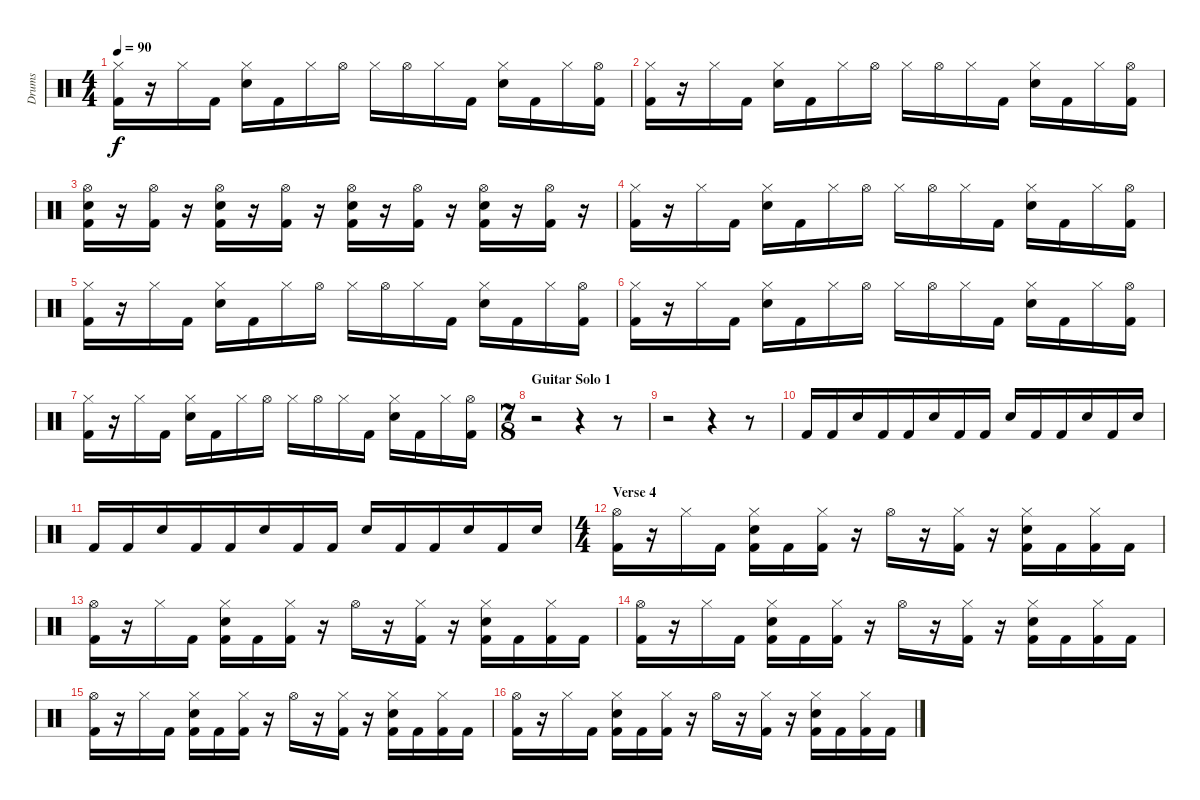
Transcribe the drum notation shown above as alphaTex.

\track ("Drums" "Drums") {instrument percussion}
\staff {score}
\articulation defaults
\ts (4 4)
\tempo 90
\clef neutral
\ks c
("Hi-Hat (closed)" "Kick (hit) 2").16{dy f} r.16 "Hi-Hat (closed)".16 "Kick (hit) 2".16 ("Hi-Hat (closed)" "Snare (hit) 2").16 "Kick (hit) 2".16 "Hi-Hat (closed)".16 "Hi-Hat (open)".16 "Hi-Hat (closed)".16 "Hi-Hat (open)".16 "Hi-Hat (closed)".16 "Kick (hit) 2".16 ("Hi-Hat (closed)" "Snare (hit) 2").16 "Kick (hit) 2".16 "Hi-Hat (closed)".16 ("Hi-Hat (open)" "Kick (hit) 2").16 |
("Hi-Hat (closed)" "Kick (hit) 2").16 r.16 "Hi-Hat (closed)".16 "Kick (hit) 2".16 ("Hi-Hat (closed)" "Snare (hit) 2").16 "Kick (hit) 2".16 "Hi-Hat (closed)".16 "Hi-Hat (open)".16 "Hi-Hat (closed)".16 "Hi-Hat (open)".16 "Hi-Hat (closed)".16 "Kick (hit) 2".16 ("Hi-Hat (closed)" "Snare (hit) 2").16 "Kick (hit) 2".16 "Hi-Hat (closed)".16 ("Hi-Hat (open)" "Kick (hit) 2").16 |
("Hi-Hat (open)" "Snare (hit) 2" "Kick (hit) 2").16 r.16 ("Hi-Hat (open)" "Kick (hit) 2").16 r.16 ("Hi-Hat (open)" "Snare (hit) 2" "Kick (hit) 2").16 r.16 ("Hi-Hat (open)" "Kick (hit) 2").16 r.16 ("Hi-Hat (open)" "Snare (hit) 2" "Kick (hit) 2").16 r.16 ("Hi-Hat (open)" "Kick (hit) 2").16 r.16 ("Hi-Hat (open)" "Snare (hit) 2" "Kick (hit) 2").16 r.16 ("Hi-Hat (open)" "Kick (hit) 2").16 r.16 |
("Hi-Hat (closed)" "Kick (hit) 2").16 r.16 "Hi-Hat (closed)".16 "Kick (hit) 2".16 ("Hi-Hat (closed)" "Snare (hit) 2").16 "Kick (hit) 2".16 "Hi-Hat (closed)".16 "Hi-Hat (open)".16 "Hi-Hat (closed)".16 "Hi-Hat (open)".16 "Hi-Hat (closed)".16 "Kick (hit) 2".16 ("Hi-Hat (closed)" "Snare (hit) 2").16 "Kick (hit) 2".16 "Hi-Hat (closed)".16 ("Hi-Hat (open)" "Kick (hit) 2").16 |
("Hi-Hat (closed)" "Kick (hit) 2").16 r.16 "Hi-Hat (closed)".16 "Kick (hit) 2".16 ("Hi-Hat (closed)" "Snare (hit) 2").16 "Kick (hit) 2".16 "Hi-Hat (closed)".16 "Hi-Hat (open)".16 "Hi-Hat (closed)".16 "Hi-Hat (open)".16 "Hi-Hat (closed)".16 "Kick (hit) 2".16 ("Hi-Hat (closed)" "Snare (hit) 2").16 "Kick (hit) 2".16 "Hi-Hat (closed)".16 ("Hi-Hat (open)" "Kick (hit) 2").16 |
("Hi-Hat (closed)" "Kick (hit) 2").16 r.16 "Hi-Hat (closed)".16 "Kick (hit) 2".16 ("Hi-Hat (closed)" "Snare (hit) 2").16 "Kick (hit) 2".16 "Hi-Hat (closed)".16 "Hi-Hat (open)".16 "Hi-Hat (closed)".16 "Hi-Hat (open)".16 "Hi-Hat (closed)".16 "Kick (hit) 2".16 ("Hi-Hat (closed)" "Snare (hit) 2").16 "Kick (hit) 2".16 "Hi-Hat (closed)".16 ("Hi-Hat (open)" "Kick (hit) 2").16 |
("Hi-Hat (closed)" "Kick (hit) 2").16 r.16 "Hi-Hat (closed)".16 "Kick (hit) 2".16 ("Hi-Hat (closed)" "Snare (hit) 2").16 "Kick (hit) 2".16 "Hi-Hat (closed)".16 "Hi-Hat (open)".16 "Hi-Hat (closed)".16 "Hi-Hat (open)".16 "Hi-Hat (closed)".16 "Kick (hit) 2".16 ("Hi-Hat (closed)" "Snare (hit) 2").16 "Kick (hit) 2".16 "Hi-Hat (closed)".16 ("Hi-Hat (open)" "Kick (hit) 2").16 |
\ts (7 8)
\section ("" "Guitar Solo 1")
r.2 r.4 r.8 |
r.2 r.4 r.8 |
"Kick (hit) 2".16 "Kick (hit) 2".16 "Snare (hit) 2".16 "Kick (hit) 2".16 "Kick (hit) 2".16 "Snare (hit) 2".16 "Kick (hit) 2".16 "Kick (hit) 2".16 "Snare (hit) 2".16 "Kick (hit) 2".16 "Kick (hit) 2".16 "Snare (hit) 2".16 "Kick (hit) 2".16 "Snare (hit) 2".16 |
"Kick (hit) 2".16 "Kick (hit) 2".16 "Snare (hit) 2".16 "Kick (hit) 2".16 "Kick (hit) 2".16 "Snare (hit) 2".16 "Kick (hit) 2".16 "Kick (hit) 2".16 "Snare (hit) 2".16 "Kick (hit) 2".16 "Kick (hit) 2".16 "Snare (hit) 2".16 "Kick (hit) 2".16 "Snare (hit) 2".16 |
\ts (4 4)
\section ("" "Verse 4")
("Hi-Hat (open)" "Kick (hit) 2").16 r.16 "Hi-Hat (closed)".16 "Kick (hit) 2".16 ("Hi-Hat (closed)" "Snare (hit) 2" "Kick (hit) 2").16 "Kick (hit) 2".16 ("Hi-Hat (closed)" "Kick (hit) 2").16 r.16 "Hi-Hat (open)".16 r.16 ("Hi-Hat (closed)" "Kick (hit) 2").16 r.16 ("Hi-Hat (closed)" "Snare (hit) 2" "Kick (hit) 2").16 "Kick (hit) 2".16 ("Hi-Hat (closed)" "Kick (hit) 2").16 "Kick (hit) 2".16 |
("Hi-Hat (open)" "Kick (hit) 2").16 r.16 "Hi-Hat (closed)".16 "Kick (hit) 2".16 ("Hi-Hat (closed)" "Snare (hit) 2" "Kick (hit) 2").16 "Kick (hit) 2".16 ("Hi-Hat (closed)" "Kick (hit) 2").16 r.16 "Hi-Hat (open)".16 r.16 ("Hi-Hat (closed)" "Kick (hit) 2").16 r.16 ("Hi-Hat (closed)" "Snare (hit) 2" "Kick (hit) 2").16 "Kick (hit) 2".16 ("Hi-Hat (closed)" "Kick (hit) 2").16 "Kick (hit) 2".16 |
("Hi-Hat (open)" "Kick (hit) 2").16 r.16 "Hi-Hat (closed)".16 "Kick (hit) 2".16 ("Hi-Hat (closed)" "Snare (hit) 2" "Kick (hit) 2").16 "Kick (hit) 2".16 ("Hi-Hat (closed)" "Kick (hit) 2").16 r.16 "Hi-Hat (open)".16 r.16 ("Hi-Hat (closed)" "Kick (hit) 2").16 r.16 ("Hi-Hat (closed)" "Snare (hit) 2" "Kick (hit) 2").16 "Kick (hit) 2".16 ("Hi-Hat (closed)" "Kick (hit) 2").16 "Kick (hit) 2".16 |
("Hi-Hat (open)" "Kick (hit) 2").16 r.16 "Hi-Hat (closed)".16 "Kick (hit) 2".16 ("Hi-Hat (closed)" "Snare (hit) 2" "Kick (hit) 2").16 "Kick (hit) 2".16 ("Hi-Hat (closed)" "Kick (hit) 2").16 r.16 "Hi-Hat (open)".16 r.16 ("Hi-Hat (closed)" "Kick (hit) 2").16 r.16 ("Hi-Hat (closed)" "Snare (hit) 2" "Kick (hit) 2").16 "Kick (hit) 2".16 ("Hi-Hat (closed)" "Kick (hit) 2").16 "Kick (hit) 2".16 |
("Hi-Hat (open)" "Kick (hit) 2").16 r.16 "Hi-Hat (closed)".16 "Kick (hit) 2".16 ("Hi-Hat (closed)" "Snare (hit) 2" "Kick (hit) 2").16 "Kick (hit) 2".16 ("Hi-Hat (closed)" "Kick (hit) 2").16 r.16 "Hi-Hat (open)".16 r.16 ("Hi-Hat (closed)" "Kick (hit) 2").16 r.16 ("Hi-Hat (closed)" "Snare (hit) 2" "Kick (hit) 2").16 "Kick (hit) 2".16 ("Hi-Hat (closed)" "Kick (hit) 2").16 "Kick (hit) 2".16
